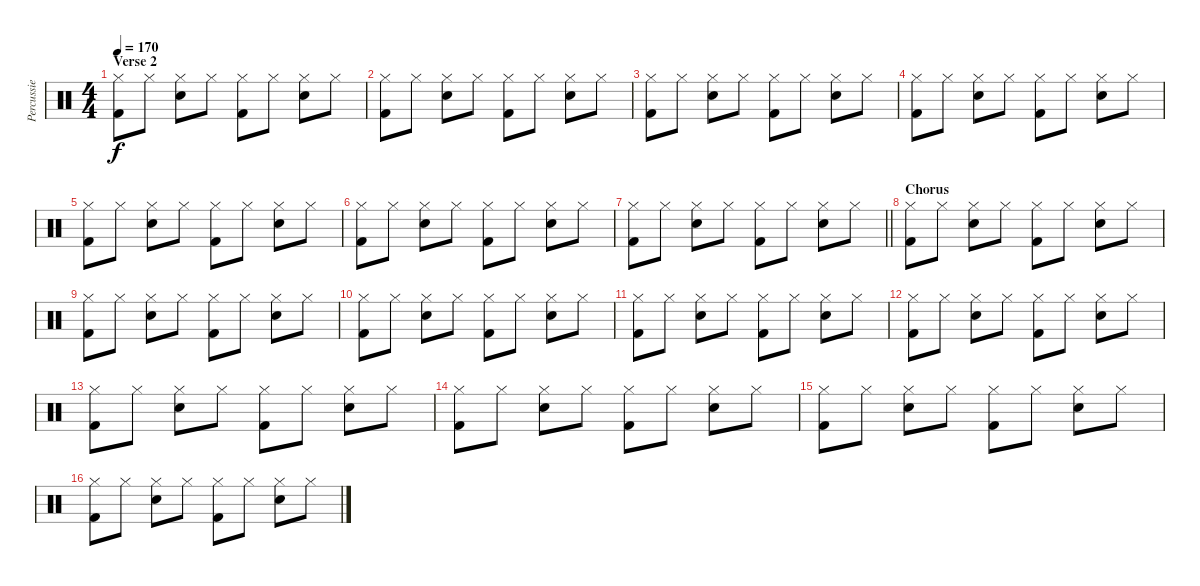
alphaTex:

\track ("Percussie" "Percussie") {instrument percussion}
\staff {score}
\articulation defaults
\ts (4 4)
\section ("" "Verse 2")
\tempo 170
\clef neutral
\ks c
("Hi-Hat (closed)" "Kick (hit) 2").8{dy f} "Hi-Hat (closed)".8 ("Hi-Hat (closed)" "Electric Snare (hit)").8 "Hi-Hat (closed)".8 ("Hi-Hat (closed)" "Kick (hit) 2").8 "Hi-Hat (closed)".8 ("Hi-Hat (closed)" "Electric Snare (hit)").8 "Hi-Hat (closed)".8 |
("Hi-Hat (closed)" "Kick (hit) 2").8 "Hi-Hat (closed)".8 ("Hi-Hat (closed)" "Electric Snare (hit)").8 "Hi-Hat (closed)".8 ("Hi-Hat (closed)" "Kick (hit) 2").8 "Hi-Hat (closed)".8 ("Hi-Hat (closed)" "Electric Snare (hit)").8 "Hi-Hat (closed)".8 |
("Hi-Hat (closed)" "Kick (hit) 2").8 "Hi-Hat (closed)".8 ("Hi-Hat (closed)" "Electric Snare (hit)").8 "Hi-Hat (closed)".8 ("Hi-Hat (closed)" "Kick (hit) 2").8 "Hi-Hat (closed)".8 ("Hi-Hat (closed)" "Electric Snare (hit)").8 "Hi-Hat (closed)".8 |
("Hi-Hat (closed)" "Kick (hit) 2").8 "Hi-Hat (closed)".8 ("Hi-Hat (closed)" "Electric Snare (hit)").8 "Hi-Hat (closed)".8 ("Hi-Hat (closed)" "Kick (hit) 2").8 "Hi-Hat (closed)".8 ("Hi-Hat (closed)" "Electric Snare (hit)").8 "Hi-Hat (closed)".8 |
("Hi-Hat (closed)" "Kick (hit) 2").8 "Hi-Hat (closed)".8 ("Hi-Hat (closed)" "Electric Snare (hit)").8 "Hi-Hat (closed)".8 ("Hi-Hat (closed)" "Kick (hit) 2").8 "Hi-Hat (closed)".8 ("Hi-Hat (closed)" "Electric Snare (hit)").8 "Hi-Hat (closed)".8 |
("Hi-Hat (closed)" "Kick (hit) 2").8 "Hi-Hat (closed)".8 ("Hi-Hat (closed)" "Electric Snare (hit)").8 "Hi-Hat (closed)".8 ("Hi-Hat (closed)" "Kick (hit) 2").8 "Hi-Hat (closed)".8 ("Hi-Hat (closed)" "Electric Snare (hit)").8 "Hi-Hat (closed)".8 |
\barLineRight lightlight
("Hi-Hat (closed)" "Kick (hit) 2").8 "Hi-Hat (closed)".8 ("Hi-Hat (closed)" "Electric Snare (hit)").8 "Hi-Hat (closed)".8 ("Hi-Hat (closed)" "Kick (hit) 2").8 "Hi-Hat (closed)".8 ("Hi-Hat (closed)" "Electric Snare (hit)").8 "Hi-Hat (closed)".8 |
\section ("" "Chorus")
("Hi-Hat (closed)" "Kick (hit) 2").8 "Hi-Hat (closed)".8 ("Hi-Hat (closed)" "Electric Snare (hit)").8 "Hi-Hat (closed)".8 ("Hi-Hat (closed)" "Kick (hit) 2").8 "Hi-Hat (closed)".8 ("Hi-Hat (closed)" "Electric Snare (hit)").8 "Hi-Hat (closed)".8 |
("Hi-Hat (closed)" "Kick (hit) 2").8 "Hi-Hat (closed)".8 ("Hi-Hat (closed)" "Electric Snare (hit)").8 "Hi-Hat (closed)".8 ("Hi-Hat (closed)" "Kick (hit) 2").8 "Hi-Hat (closed)".8 ("Hi-Hat (closed)" "Electric Snare (hit)").8 "Hi-Hat (closed)".8 |
("Hi-Hat (closed)" "Kick (hit) 2").8 "Hi-Hat (closed)".8 ("Hi-Hat (closed)" "Electric Snare (hit)").8 "Hi-Hat (closed)".8 ("Hi-Hat (closed)" "Kick (hit) 2").8 "Hi-Hat (closed)".8 ("Hi-Hat (closed)" "Electric Snare (hit)").8 "Hi-Hat (closed)".8 |
("Hi-Hat (closed)" "Kick (hit) 2").8 "Hi-Hat (closed)".8 ("Hi-Hat (closed)" "Electric Snare (hit)").8 "Hi-Hat (closed)".8 ("Hi-Hat (closed)" "Kick (hit) 2").8 "Hi-Hat (closed)".8 ("Hi-Hat (closed)" "Electric Snare (hit)").8 "Hi-Hat (closed)".8 |
("Hi-Hat (closed)" "Kick (hit) 2").8 "Hi-Hat (closed)".8 ("Hi-Hat (closed)" "Electric Snare (hit)").8 "Hi-Hat (closed)".8 ("Hi-Hat (closed)" "Kick (hit) 2").8 "Hi-Hat (closed)".8 ("Hi-Hat (closed)" "Electric Snare (hit)").8 "Hi-Hat (closed)".8 |
("Hi-Hat (closed)" "Kick (hit) 2").8 "Hi-Hat (closed)".8 ("Hi-Hat (closed)" "Electric Snare (hit)").8 "Hi-Hat (closed)".8 ("Hi-Hat (closed)" "Kick (hit) 2").8 "Hi-Hat (closed)".8 ("Hi-Hat (closed)" "Electric Snare (hit)").8 "Hi-Hat (closed)".8 |
("Hi-Hat (closed)" "Kick (hit) 2").8 "Hi-Hat (closed)".8 ("Hi-Hat (closed)" "Electric Snare (hit)").8 "Hi-Hat (closed)".8 ("Hi-Hat (closed)" "Kick (hit) 2").8 "Hi-Hat (closed)".8 ("Hi-Hat (closed)" "Electric Snare (hit)").8 "Hi-Hat (closed)".8 |
("Hi-Hat (closed)" "Kick (hit) 2").8 "Hi-Hat (closed)".8 ("Hi-Hat (closed)" "Electric Snare (hit)").8 "Hi-Hat (closed)".8 ("Hi-Hat (closed)" "Kick (hit) 2").8 "Hi-Hat (closed)".8 ("Hi-Hat (closed)" "Electric Snare (hit)").8 "Hi-Hat (closed)".8 |
("Hi-Hat (closed)" "Kick (hit) 2").8 "Hi-Hat (closed)".8 ("Hi-Hat (closed)" "Electric Snare (hit)").8 "Hi-Hat (closed)".8 ("Hi-Hat (closed)" "Kick (hit) 2").8 "Hi-Hat (closed)".8 ("Hi-Hat (closed)" "Electric Snare (hit)").8 "Hi-Hat (closed)".8
